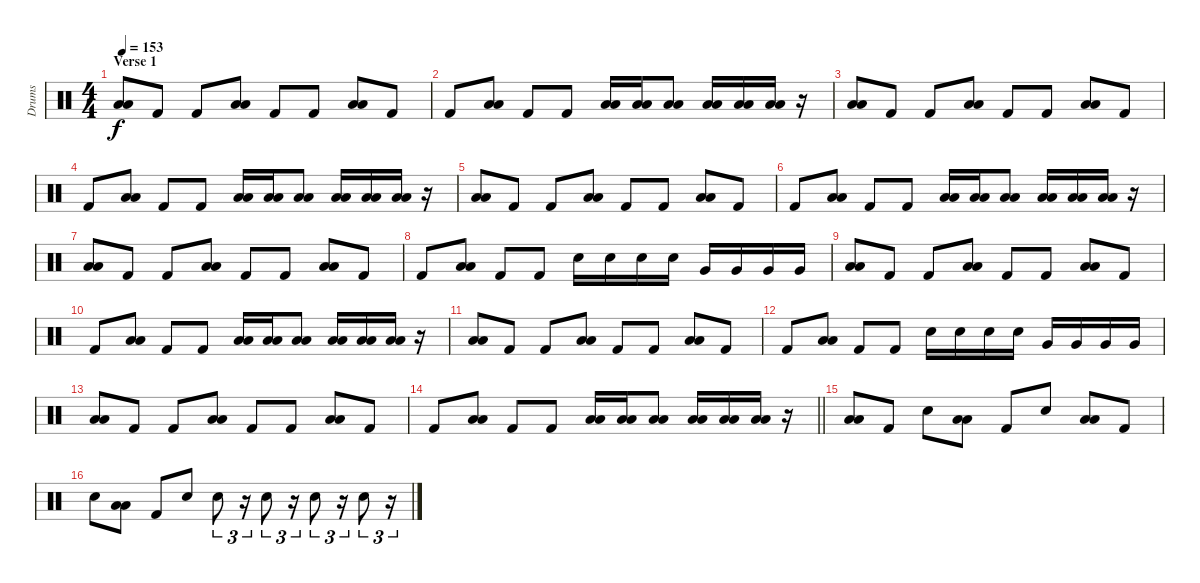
\track ("Drums" "Drums") {instrument percussion}
\staff {score}
\articulation defaults
\ts (4 4)
\section ("" "Verse 1")
\tempo 153
\clef neutral
\ks c
("Low Tom (hit)" "Low Tom (hit)").8{dy f} "Kick (hit) 2".8 "Kick (hit) 2".8 ("Low Tom (hit)" "Low Tom (hit)").8 "Kick (hit) 2".8 "Kick (hit) 2".8 ("Low Tom (hit)" "Low Tom (hit)").8 "Kick (hit) 2".8 |
"Kick (hit) 2".8 ("Low Tom (hit)" "Low Tom (hit)").8 "Kick (hit) 2".8 "Kick (hit) 2".8 ("Low Tom (hit)" "Low Tom (hit)").16 ("Low Tom (hit)" "Low Tom (hit)").16 ("Low Tom (hit)" "Low Tom (hit)").8 ("Low Tom (hit)" "Low Tom (hit)").16 ("Low Tom (hit)" "Low Tom (hit)").16 ("Low Tom (hit)" "Low Tom (hit)").16 r.16 |
("Low Tom (hit)" "Low Tom (hit)").8 "Kick (hit) 2".8 "Kick (hit) 2".8 ("Low Tom (hit)" "Low Tom (hit)").8 "Kick (hit) 2".8 "Kick (hit) 2".8 ("Low Tom (hit)" "Low Tom (hit)").8 "Kick (hit) 2".8 |
"Kick (hit) 2".8 ("Low Tom (hit)" "Low Tom (hit)").8 "Kick (hit) 2".8 "Kick (hit) 2".8 ("Low Tom (hit)" "Low Tom (hit)").16 ("Low Tom (hit)" "Low Tom (hit)").16 ("Low Tom (hit)" "Low Tom (hit)").8 ("Low Tom (hit)" "Low Tom (hit)").16 ("Low Tom (hit)" "Low Tom (hit)").16 ("Low Tom (hit)" "Low Tom (hit)").16 r.16 |
("Low Tom (hit)" "Low Tom (hit)").8 "Kick (hit) 2".8 "Kick (hit) 2".8 ("Low Tom (hit)" "Low Tom (hit)").8 "Kick (hit) 2".8 "Kick (hit) 2".8 ("Low Tom (hit)" "Low Tom (hit)").8 "Kick (hit) 2".8 |
"Kick (hit) 2".8 ("Low Tom (hit)" "Low Tom (hit)").8 "Kick (hit) 2".8 "Kick (hit) 2".8 ("Low Tom (hit)" "Low Tom (hit)").16 ("Low Tom (hit)" "Low Tom (hit)").16 ("Low Tom (hit)" "Low Tom (hit)").8 ("Low Tom (hit)" "Low Tom (hit)").16 ("Low Tom (hit)" "Low Tom (hit)").16 ("Low Tom (hit)" "Low Tom (hit)").16 r.16 |
("Low Tom (hit)" "Low Tom (hit)").8 "Kick (hit) 2".8 "Kick (hit) 2".8 ("Low Tom (hit)" "Low Tom (hit)").8 "Kick (hit) 2".8 "Kick (hit) 2".8 ("Low Tom (hit)" "Low Tom (hit)").8 "Kick (hit) 2".8 |
"Kick (hit) 2".8 ("Low Tom (hit)" "Low Tom (hit)").8 "Kick (hit) 2".8 "Kick (hit) 2".8 "Electric Snare (hit)".16 "Electric Snare (hit)".16 "Electric Snare (hit)".16 "Electric Snare (hit)".16 "Very Low Tom (hit)".16 "Very Low Tom (hit)".16 "Very Low Tom (hit)".16 "Very Low Tom (hit)".16 |
("Low Tom (hit)" "Low Tom (hit)").8 "Kick (hit) 2".8 "Kick (hit) 2".8 ("Low Tom (hit)" "Low Tom (hit)").8 "Kick (hit) 2".8 "Kick (hit) 2".8 ("Low Tom (hit)" "Low Tom (hit)").8 "Kick (hit) 2".8 |
"Kick (hit) 2".8 ("Low Tom (hit)" "Low Tom (hit)").8 "Kick (hit) 2".8 "Kick (hit) 2".8 ("Low Tom (hit)" "Low Tom (hit)").16 ("Low Tom (hit)" "Low Tom (hit)").16 ("Low Tom (hit)" "Low Tom (hit)").8 ("Low Tom (hit)" "Low Tom (hit)").16 ("Low Tom (hit)" "Low Tom (hit)").16 ("Low Tom (hit)" "Low Tom (hit)").16 r.16 |
("Low Tom (hit)" "Low Tom (hit)").8 "Kick (hit) 2".8 "Kick (hit) 2".8 ("Low Tom (hit)" "Low Tom (hit)").8 "Kick (hit) 2".8 "Kick (hit) 2".8 ("Low Tom (hit)" "Low Tom (hit)").8 "Kick (hit) 2".8 |
"Kick (hit) 2".8 ("Low Tom (hit)" "Low Tom (hit)").8 "Kick (hit) 2".8 "Kick (hit) 2".8 "Electric Snare (hit)".16 "Electric Snare (hit)".16 "Electric Snare (hit)".16 "Electric Snare (hit)".16 "Very Low Tom (hit)".16 "Very Low Tom (hit)".16 "Very Low Tom (hit)".16 "Very Low Tom (hit)".16 |
("Low Tom (hit)" "Low Tom (hit)").8 "Kick (hit) 2".8 "Kick (hit) 2".8 ("Low Tom (hit)" "Low Tom (hit)").8 "Kick (hit) 2".8 "Kick (hit) 2".8 ("Low Tom (hit)" "Low Tom (hit)").8 "Kick (hit) 2".8 |
\barLineRight lightlight "Kick (hit) 2".8
("Low Tom (hit)" "Low Tom (hit)").8 "Kick (hit) 2".8 "Kick (hit) 2".8 ("Low Tom (hit)" "Low Tom (hit)").16 ("Low Tom (hit)" "Low Tom (hit)").16 ("Low Tom (hit)" "Low Tom (hit)").8 ("Low Tom (hit)" "Low Tom (hit)").16 ("Low Tom (hit)" "Low Tom (hit)").16 ("Low Tom (hit)" "Low Tom (hit)").16 r.16 |
\section ("" "")
("Low Tom (hit)" "Low Tom (hit)").8{volume 16} "Kick (hit) 2".8 "Electric Snare (hit)".8 ("Low Tom (hit)" "Low Tom (hit)").8 "Kick (hit) 2".8 "Electric Snare (hit)".8 ("Low Tom (hit)" "Low Tom (hit)").8 "Kick (hit) 2".8 |
"Electric Snare (hit)".8 ("Low Tom (hit)" "Low Tom (hit)").8 "Kick (hit) 2".8 "Electric Snare (hit)".8 "Electric Snare (hit)".8{tu (3 2)} r.16{tu (3 2)} "Electric Snare (hit)".8{tu (3 2)} r.16{tu (3 2)} "Electric Snare (hit)".8{tu (3 2)} r.16{tu (3 2)} "Electric Snare (hit)".8{tu (3 2)} r.16{tu (3 2)}
